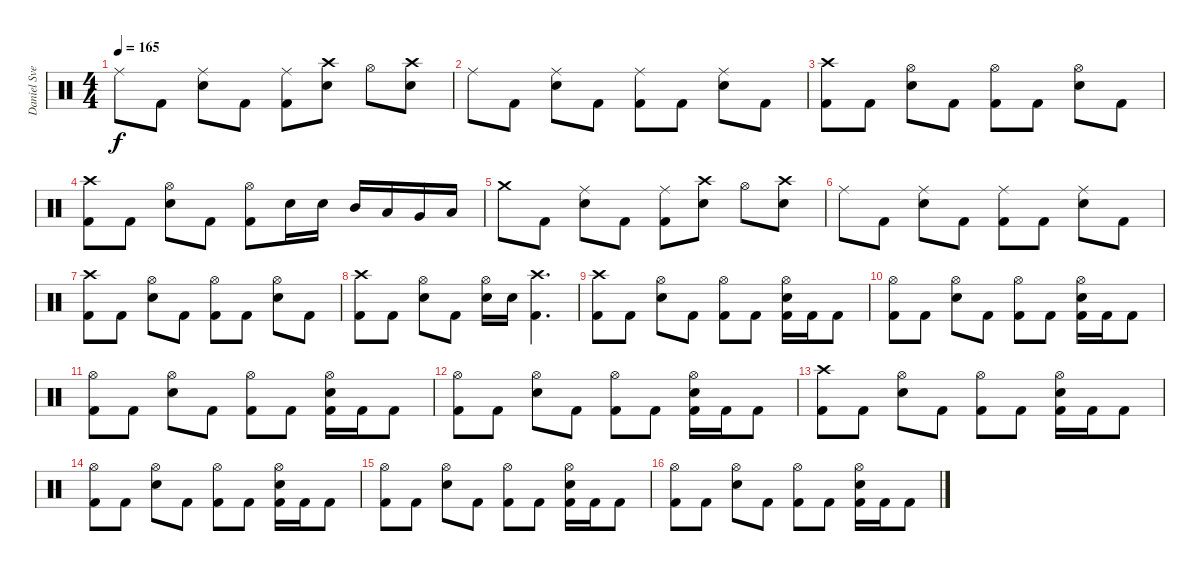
\track ("Daniel Svensson" "Daniel Sve") {instrument percussion}
\staff {score}
\articulation defaults
\ts (4 4)
\tempo 165
\clef neutral
\ks c "Ride (middle)".8{dy f} "Kick (hit) 2".8
("Ride (middle)" "Electric Snare (hit)").8 "Kick (hit) 2".8 ("Ride (middle)" "Kick (hit) 2").8 ("Crash high (hit)" "Electric Snare (hit)").8 "Hi-Hat (open)".8 ("Crash high (hit)" "Electric Snare (hit)").8 |
"Ride (middle)".8 "Kick (hit) 2".8 ("Ride (middle)" "Electric Snare (hit)").8 "Kick (hit) 2".8 ("Ride (middle)" "Kick (hit) 2").8 "Kick (hit) 2".8 ("Ride (middle)" "Electric Snare (hit)").8 "Kick (hit) 2".8 |
("Crash high (hit)" "Kick (hit) 2").8 "Kick (hit) 2".8 ("Hi-Hat (open)" "Electric Snare (hit)").8 "Kick (hit) 2".8 ("Hi-Hat (open)" "Kick (hit) 2").8 "Kick (hit) 2".8 ("Hi-Hat (open)" "Electric Snare (hit)").8 "Kick (hit) 2".8 |
("Crash high (hit)" "Kick (hit) 2").8 "Kick (hit) 2".8 ("Hi-Hat (open)" "Electric Snare (hit)").8 "Kick (hit) 2".8 ("Hi-Hat (open)" "Kick (hit) 2").8 "Electric Snare (hit)".16 "Electric Snare (hit)".16 "Mid Tom (hit)".16 "Low Tom (hit)".16 "Very Low Tom (hit)".16 "Low Floor Tom (hit)".16 |
"Crash medium (hit)".8 "Kick (hit) 2".8 ("Ride (middle)" "Electric Snare (hit)").8 "Kick (hit) 2".8 ("Ride (middle)" "Kick (hit) 2").8 ("Crash high (hit)" "Electric Snare (hit)").8 "Hi-Hat (open)".8 ("Crash high (hit)" "Electric Snare (hit)").8 |
"Ride (middle)".8 "Kick (hit) 2".8 ("Ride (middle)" "Electric Snare (hit)").8 "Kick (hit) 2".8 ("Ride (middle)" "Kick (hit) 2").8 "Kick (hit) 2".8 ("Ride (middle)" "Electric Snare (hit)").8 "Kick (hit) 2".8 |
("Crash high (hit)" "Kick (hit) 2").8 "Kick (hit) 2".8 ("Hi-Hat (open)" "Electric Snare (hit)").8 "Kick (hit) 2".8 ("Hi-Hat (open)" "Kick (hit) 2").8 "Kick (hit) 2".8 ("Hi-Hat (open)" "Electric Snare (hit)").8 "Kick (hit) 2".8 |
("Crash high (hit)" "Kick (hit) 2").8 "Kick (hit) 2".8 ("Hi-Hat (open)" "Electric Snare (hit)").8 "Kick (hit) 2".8 ("Hi-Hat (open)" "Electric Snare (hit)").16 "Electric Snare (hit)".16 ("Crash high (hit)" "Kick (hit) 2").4{d} |
("Crash high (hit)" "Kick (hit) 2").8 "Kick (hit) 2".8 ("Hi-Hat (open)" "Electric Snare (hit)").8 "Kick (hit) 2".8 ("Hi-Hat (open)" "Kick (hit) 2").8 "Kick (hit) 2".8 ("Hi-Hat (open)" "Electric Snare (hit)" "Kick (hit) 2").16 "Kick (hit) 2".16 "Kick (hit) 2".8 |
("Hi-Hat (open)" "Kick (hit) 2").8 "Kick (hit) 2".8 ("Hi-Hat (open)" "Electric Snare (hit)").8 "Kick (hit) 2".8 ("Hi-Hat (open)" "Kick (hit) 2").8 "Kick (hit) 2".8 ("Hi-Hat (open)" "Electric Snare (hit)" "Kick (hit) 2").16 "Kick (hit) 2".16 "Kick (hit) 2".8 |
("Hi-Hat (open)" "Kick (hit) 2").8 "Kick (hit) 2".8 ("Hi-Hat (open)" "Electric Snare (hit)").8 "Kick (hit) 2".8 ("Hi-Hat (open)" "Kick (hit) 2").8 "Kick (hit) 2".8 ("Hi-Hat (open)" "Electric Snare (hit)" "Kick (hit) 2").16 "Kick (hit) 2".16 "Kick (hit) 2".8 |
("Hi-Hat (open)" "Kick (hit) 2").8 "Kick (hit) 2".8 ("Hi-Hat (open)" "Electric Snare (hit)").8 "Kick (hit) 2".8 ("Hi-Hat (open)" "Kick (hit) 2").8 "Kick (hit) 2".8 ("Hi-Hat (open)" "Electric Snare (hit)" "Kick (hit) 2").16 "Kick (hit) 2".16 "Kick (hit) 2".8 |
("Crash high (hit)" "Kick (hit) 2").8 "Kick (hit) 2".8 ("Hi-Hat (open)" "Electric Snare (hit)").8 "Kick (hit) 2".8 ("Hi-Hat (open)" "Kick (hit) 2").8 "Kick (hit) 2".8 ("Hi-Hat (open)" "Electric Snare (hit)" "Kick (hit) 2").16 "Kick (hit) 2".16 "Kick (hit) 2".8 |
("Hi-Hat (open)" "Kick (hit) 2").8 "Kick (hit) 2".8 ("Hi-Hat (open)" "Electric Snare (hit)").8 "Kick (hit) 2".8 ("Hi-Hat (open)" "Kick (hit) 2").8 "Kick (hit) 2".8 ("Hi-Hat (open)" "Electric Snare (hit)" "Kick (hit) 2").16 "Kick (hit) 2".16 "Kick (hit) 2".8 |
("Hi-Hat (open)" "Kick (hit) 2").8 "Kick (hit) 2".8 ("Hi-Hat (open)" "Electric Snare (hit)").8 "Kick (hit) 2".8 ("Hi-Hat (open)" "Kick (hit) 2").8 "Kick (hit) 2".8 ("Hi-Hat (open)" "Electric Snare (hit)" "Kick (hit) 2").16 "Kick (hit) 2".16 "Kick (hit) 2".8 |
("Hi-Hat (open)" "Kick (hit) 2").8 "Kick (hit) 2".8 ("Hi-Hat (open)" "Electric Snare (hit)").8 "Kick (hit) 2".8 ("Hi-Hat (open)" "Kick (hit) 2").8 "Kick (hit) 2".8 ("Hi-Hat (open)" "Electric Snare (hit)" "Kick (hit) 2").16 "Kick (hit) 2".16 "Kick (hit) 2".8
